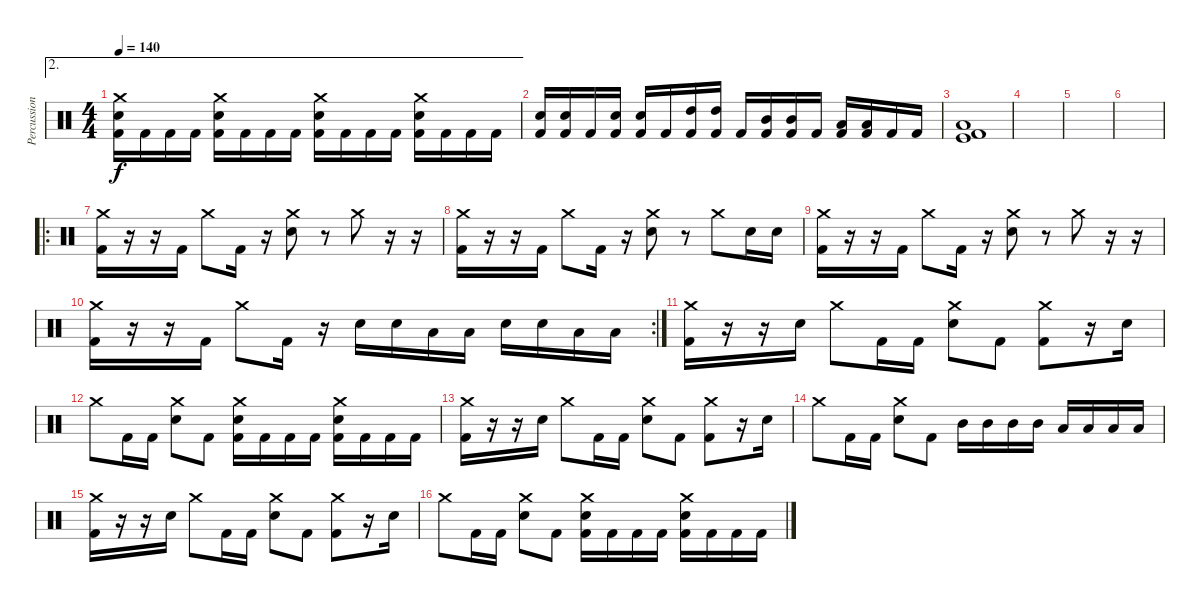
\track ("Percussions" "Percussion") {instrument percussion}
\staff {score}
\articulation defaults
\ae 2
\ts (4 4)
\tempo 140
\clef neutral
\ks c
("Kick (hit) 2" "Electric Snare (hit)" "Crash medium (hit)").16{dy f} "Kick (hit) 2".16 "Kick (hit) 2".16 "Kick (hit) 2".16 ("Kick (hit) 2" "Electric Snare (hit)" "Crash medium (hit)").16 "Kick (hit) 2".16 "Kick (hit) 2".16 "Kick (hit) 2".16 ("Kick (hit) 2" "Electric Snare (hit)" "Crash medium (hit)").16 "Kick (hit) 2".16 "Kick (hit) 2".16 "Kick (hit) 2".16 ("Kick (hit) 2" "Electric Snare (hit)" "Crash medium (hit)").16 "Kick (hit) 2".16 "Kick (hit) 2".16 "Kick (hit) 2".16 |
("Kick (hit) 2" "Electric Snare (hit)").16 ("Kick (hit) 2" "Electric Snare (hit)").16 "Kick (hit) 2".16 ("Kick (hit) 2" "Electric Snare (hit)").16 ("Kick (hit) 2" "Electric Snare (hit)").16 "Kick (hit) 2".16 ("Kick (hit) 2" "High Tom (hit)").16 ("Kick (hit) 2" "High Tom (hit)").16 "Kick (hit) 2".16 ("Kick (hit) 2" "Mid Tom (hit)").16 ("Kick (hit) 2" "Mid Tom (hit)").16 "Kick (hit) 2".16 ("Kick (hit) 2" "Low Tom (hit)").16 ("Kick (hit) 2" "Low Tom (hit)").16 "Kick (hit) 2".16 "Kick (hit) 2".16 |
("Kick (hit) 2" "Kick (hit)" "Low Tom (hit)").1 |
|
|
|
\ro
("Kick (hit) 2" "Crash medium (hit)").16 r.16 r.16 "Kick (hit) 2".16 "Crash medium (hit)".8 "Kick (hit) 2".16 r.16 ("Electric Snare (hit)" "Crash medium (hit)").8 r.8 "Crash medium (hit)".8 r.16 r.16 |
("Kick (hit) 2" "Crash medium (hit)").16 r.16 r.16 "Kick (hit) 2".16 "Crash medium (hit)".8 "Kick (hit) 2".16 r.16 ("Electric Snare (hit)" "Crash medium (hit)").8 r.8 "Crash medium (hit)".8 "Electric Snare (hit)".16 "Electric Snare (hit)".16 |
("Kick (hit) 2" "Crash medium (hit)").16 r.16 r.16 "Kick (hit) 2".16 "Crash medium (hit)".8 "Kick (hit) 2".16 r.16 ("Electric Snare (hit)" "Crash medium (hit)").8 r.8 "Crash medium (hit)".8 r.16 r.16 |
\rc 2
("Kick (hit) 2" "Crash medium (hit)").16 r.16 r.16 "Kick (hit) 2".16 "Crash medium (hit)".8 "Kick (hit) 2".16 r.16 "Electric Snare (hit)".16 "Electric Snare (hit)".16 "Low Tom (hit)".16 "Low Tom (hit)".16 "Electric Snare (hit)".16 "Electric Snare (hit)".16 "Low Tom (hit)".16 "Low Tom (hit)".16 |
("Kick (hit) 2" "Crash medium (hit)").16 r.16 r.16 "Electric Snare (hit)".16 "Crash medium (hit)".8 "Kick (hit) 2".16 "Kick (hit) 2".16 ("Electric Snare (hit)" "Crash medium (hit)").8 "Kick (hit) 2".8 ("Kick (hit) 2" "Crash medium (hit)").8 r.16 "Electric Snare (hit)".16 |
"Crash medium (hit)".8 "Kick (hit) 2".16 "Kick (hit) 2".16 ("Electric Snare (hit)" "Crash medium (hit)").8 "Kick (hit) 2".8 ("Kick (hit) 2" "Electric Snare (hit)" "Crash medium (hit)").16 "Kick (hit) 2".16 "Kick (hit) 2".16 "Kick (hit) 2".16 ("Kick (hit) 2" "Electric Snare (hit)" "Crash medium (hit)").16 "Kick (hit) 2".16 "Kick (hit) 2".16 "Kick (hit) 2".16 |
("Kick (hit) 2" "Crash medium (hit)").16 r.16 r.16 "Electric Snare (hit)".16 "Crash medium (hit)".8 "Kick (hit) 2".16 "Kick (hit) 2".16 ("Electric Snare (hit)" "Crash medium (hit)").8 "Kick (hit) 2".8 ("Kick (hit) 2" "Crash medium (hit)").8 r.16 "Electric Snare (hit)".16 |
"Crash medium (hit)".8 "Kick (hit) 2".16 "Kick (hit) 2".16 ("Electric Snare (hit)" "Crash medium (hit)").8 "Kick (hit) 2".8 "Mid Tom (hit)".16 "Mid Tom (hit)".16 "Mid Tom (hit)".16 "Mid Tom (hit)".16 "Low Tom (hit)".16 "Low Tom (hit)".16 "Low Tom (hit)".16 "Low Tom (hit)".16 |
("Kick (hit) 2" "Crash medium (hit)").16 r.16 r.16 "Electric Snare (hit)".16 "Crash medium (hit)".8 "Kick (hit) 2".16 "Kick (hit) 2".16 ("Electric Snare (hit)" "Crash medium (hit)").8 "Kick (hit) 2".8 ("Kick (hit) 2" "Crash medium (hit)").8 r.16 "Electric Snare (hit)".16 |
"Crash medium (hit)".8 "Kick (hit) 2".16 "Kick (hit) 2".16 ("Electric Snare (hit)" "Crash medium (hit)").8 "Kick (hit) 2".8 ("Kick (hit) 2" "Electric Snare (hit)" "Crash medium (hit)").16 "Kick (hit) 2".16 "Kick (hit) 2".16 "Kick (hit) 2".16 ("Kick (hit) 2" "Electric Snare (hit)" "Crash medium (hit)").16 "Kick (hit) 2".16 "Kick (hit) 2".16 "Kick (hit) 2".16
